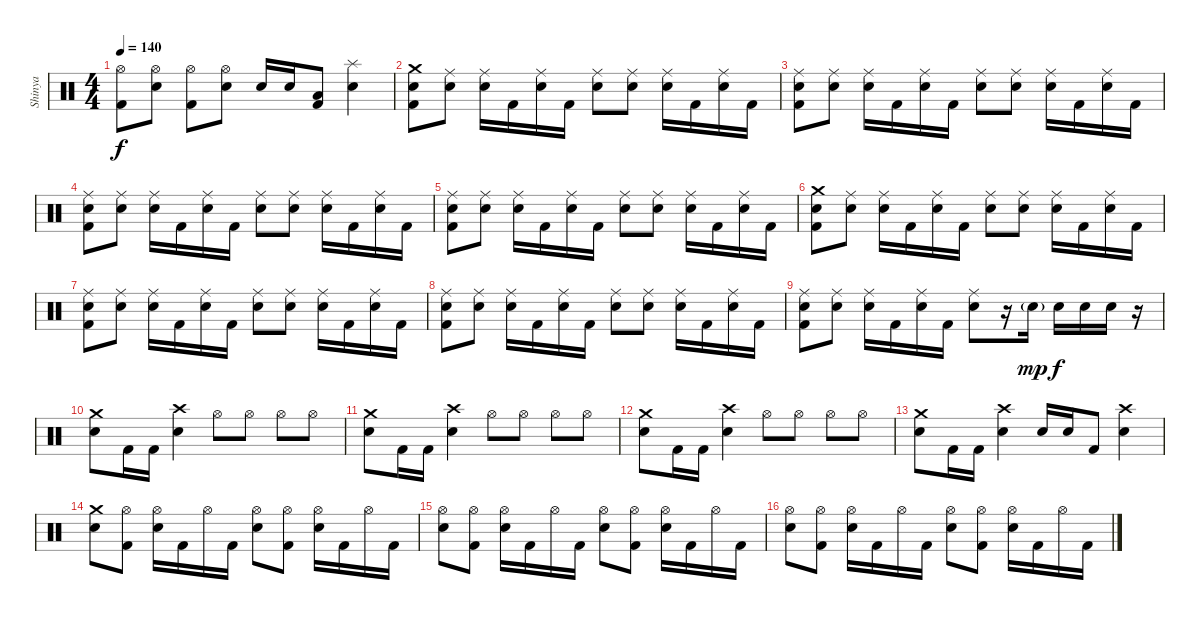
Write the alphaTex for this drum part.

\track ("Shinya" "Shinya") {instrument percussion}
\staff {score}
\articulation defaults
\ts (4 4)
\tempo 140
\clef neutral
\ks c
("Hi-Hat (open)" "Kick (hit) 2").8{dy f} ("Hi-Hat (open)" "Snare (hit) 2").8 ("Hi-Hat (open)" "Kick (hit) 2").8 ("Hi-Hat (open)" "Snare (hit) 2").8 "Snare (hit) 2".16 "Snare (hit) 2".16 ("Low Tom (hit)" "Kick (hit) 2").8 ("Splash (hit)" "Snare (hit) 2").4 |
("Crash medium (hit)" "Snare (hit) 2" "Kick (hit) 2").8 ("Ride (middle)" "Snare (hit) 2").8 ("Ride (middle)" "Snare (hit) 2").16 "Kick (hit) 2".16 ("Ride (middle)" "Snare (hit) 2").16 "Kick (hit) 2".16 ("Ride (middle)" "Snare (hit) 2").8 ("Ride (middle)" "Snare (hit) 2").8 ("Ride (middle)" "Snare (hit) 2").16 "Kick (hit) 2".16 ("Ride (middle)" "Snare (hit) 2").16 "Kick (hit) 2".16 |
("Ride (middle)" "Snare (hit) 2" "Kick (hit) 2").8 ("Ride (middle)" "Snare (hit) 2").8 ("Ride (middle)" "Snare (hit) 2").16 "Kick (hit) 2".16 ("Ride (middle)" "Snare (hit) 2").16 "Kick (hit) 2".16 ("Ride (middle)" "Snare (hit) 2").8 ("Ride (middle)" "Snare (hit) 2").8 ("Ride (middle)" "Snare (hit) 2").16 "Kick (hit) 2".16 ("Ride (middle)" "Snare (hit) 2").16 "Kick (hit) 2".16 |
("Ride (middle)" "Snare (hit) 2" "Kick (hit) 2").8 ("Ride (middle)" "Snare (hit) 2").8 ("Ride (middle)" "Snare (hit) 2").16 "Kick (hit) 2".16 ("Ride (middle)" "Snare (hit) 2").16 "Kick (hit) 2".16 ("Ride (middle)" "Snare (hit) 2").8 ("Ride (middle)" "Snare (hit) 2").8 ("Ride (middle)" "Snare (hit) 2").16 "Kick (hit) 2".16 ("Ride (middle)" "Snare (hit) 2").16 "Kick (hit) 2".16 |
("Ride (middle)" "Snare (hit) 2" "Kick (hit) 2").8 ("Ride (middle)" "Snare (hit) 2").8 ("Ride (middle)" "Snare (hit) 2").16 "Kick (hit) 2".16 ("Ride (middle)" "Snare (hit) 2").16 "Kick (hit) 2".16 ("Ride (middle)" "Snare (hit) 2").8 ("Ride (middle)" "Snare (hit) 2").8 ("Ride (middle)" "Snare (hit) 2").16 "Kick (hit) 2".16 ("Ride (middle)" "Snare (hit) 2").16 "Kick (hit) 2".16 |
("Crash medium (hit)" "Snare (hit) 2" "Kick (hit) 2").8 ("Ride (middle)" "Snare (hit) 2").8 ("Ride (middle)" "Snare (hit) 2").16 "Kick (hit) 2".16 ("Ride (middle)" "Snare (hit) 2").16 "Kick (hit) 2".16 ("Ride (middle)" "Snare (hit) 2").8 ("Ride (middle)" "Snare (hit) 2").8 ("Ride (middle)" "Snare (hit) 2").16 "Kick (hit) 2".16 ("Ride (middle)" "Snare (hit) 2").16 "Kick (hit) 2".16 |
("Ride (middle)" "Snare (hit) 2" "Kick (hit) 2").8 ("Ride (middle)" "Snare (hit) 2").8 ("Ride (middle)" "Snare (hit) 2").16 "Kick (hit) 2".16 ("Ride (middle)" "Snare (hit) 2").16 "Kick (hit) 2".16 ("Ride (middle)" "Snare (hit) 2").8 ("Ride (middle)" "Snare (hit) 2").8 ("Ride (middle)" "Snare (hit) 2").16 "Kick (hit) 2".16 ("Ride (middle)" "Snare (hit) 2").16 "Kick (hit) 2".16 |
("Ride (middle)" "Snare (hit) 2" "Kick (hit) 2").8 ("Ride (middle)" "Snare (hit) 2").8 ("Ride (middle)" "Snare (hit) 2").16 "Kick (hit) 2".16 ("Ride (middle)" "Snare (hit) 2").16 "Kick (hit) 2".16 ("Ride (middle)" "Snare (hit) 2").8 ("Ride (middle)" "Snare (hit) 2").8 ("Ride (middle)" "Snare (hit) 2").16 "Kick (hit) 2".16 ("Ride (middle)" "Snare (hit) 2").16 "Kick (hit) 2".16 |
("Ride (middle)" "Snare (hit) 2" "Kick (hit) 2").8 ("Ride (middle)" "Snare (hit) 2").8 ("Ride (middle)" "Snare (hit) 2").16 "Kick (hit) 2".16 ("Ride (middle)" "Snare (hit) 2").16 "Kick (hit) 2".16 ("Ride (middle)" "Snare (hit) 2").8 r.16 "Snare (hit) 2"{g}.16{dy mp} "Snare (hit) 2".16{dy f} "Snare (hit) 2".16 "Snare (hit) 2".16 r.16 |
("Crash medium (hit)" "Snare (hit) 2").8 "Kick (hit) 2".16 "Kick (hit) 2".16 ("Crash high (hit)" "Snare (hit) 2").4 "Hi-Hat (open)".8 "Hi-Hat (open)".8 "Hi-Hat (open)".8 "Hi-Hat (open)".8 |
("Crash medium (hit)" "Snare (hit) 2").8 "Kick (hit) 2".16 "Kick (hit) 2".16 ("Crash high (hit)" "Snare (hit) 2").4 "Hi-Hat (open)".8 "Hi-Hat (open)".8 "Hi-Hat (open)".8 "Hi-Hat (open)".8 |
("Crash medium (hit)" "Snare (hit) 2").8 "Kick (hit) 2".16 "Kick (hit) 2".16 ("Crash high (hit)" "Snare (hit) 2").4 "Hi-Hat (open)".8 "Hi-Hat (open)".8 "Hi-Hat (open)".8 "Hi-Hat (open)".8 |
("Crash medium (hit)" "Snare (hit) 2").8 "Kick (hit) 2".16 "Kick (hit) 2".16 ("Crash high (hit)" "Snare (hit) 2").4 "Snare (hit) 2".16 "Snare (hit) 2".16 "Kick (hit) 2".8 ("Crash high (hit)" "Snare (hit) 2").4 |
("Crash medium (hit)" "Snare (hit) 2").8 ("Hi-Hat (open)" "Kick (hit) 2").8 ("Hi-Hat (open)" "Snare (hit) 2").16 "Kick (hit) 2".16 "Hi-Hat (open)".16 "Kick (hit) 2".16 ("Hi-Hat (open)" "Snare (hit) 2").8 ("Hi-Hat (open)" "Kick (hit) 2").8 ("Hi-Hat (open)" "Snare (hit) 2").16 "Kick (hit) 2".16 "Hi-Hat (open)".16 "Kick (hit) 2".16 |
("Hi-Hat (open)" "Snare (hit) 2").8 ("Hi-Hat (open)" "Kick (hit) 2").8 ("Hi-Hat (open)" "Snare (hit) 2").16 "Kick (hit) 2".16 "Hi-Hat (open)".16 "Kick (hit) 2".16 ("Hi-Hat (open)" "Snare (hit) 2").8 ("Hi-Hat (open)" "Kick (hit) 2").8 ("Hi-Hat (open)" "Snare (hit) 2").16 "Kick (hit) 2".16 "Hi-Hat (open)".16 "Kick (hit) 2".16 |
("Hi-Hat (open)" "Snare (hit) 2").8 ("Hi-Hat (open)" "Kick (hit) 2").8 ("Hi-Hat (open)" "Snare (hit) 2").16 "Kick (hit) 2".16 "Hi-Hat (open)".16 "Kick (hit) 2".16 ("Hi-Hat (open)" "Snare (hit) 2").8 ("Hi-Hat (open)" "Kick (hit) 2").8 ("Hi-Hat (open)" "Snare (hit) 2").16 "Kick (hit) 2".16 "Hi-Hat (open)".16 "Kick (hit) 2".16
